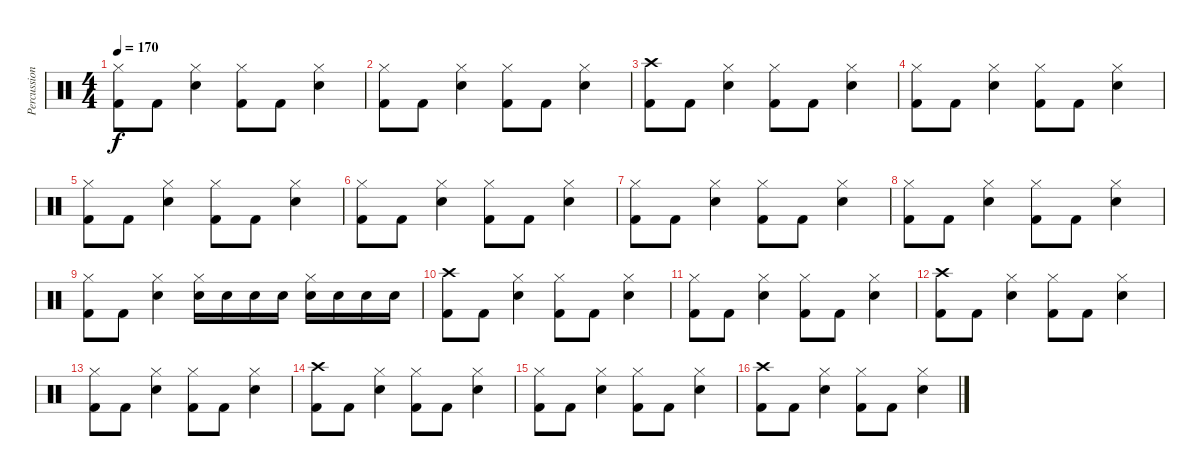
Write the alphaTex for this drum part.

\track ("Percussion" "Percussion") {instrument percussion}
\staff {score}
\articulation defaults
\ts (4 4)
\tempo 170
\clef neutral
\ks c
("Hi-Hat (closed)" "Kick (hit) 2").8{dy f} "Kick (hit) 2".8 ("Hi-Hat (closed)" "Electric Snare (hit)").4 ("Hi-Hat (closed)" "Kick (hit) 2").8 "Kick (hit) 2".8 ("Hi-Hat (closed)" "Electric Snare (hit)").4 |
("Hi-Hat (closed)" "Kick (hit) 2").8 "Kick (hit) 2".8 ("Hi-Hat (closed)" "Electric Snare (hit)").4 ("Hi-Hat (closed)" "Kick (hit) 2").8 "Kick (hit) 2".8 ("Hi-Hat (closed)" "Electric Snare (hit)").4 |
("Crash high (hit)" "Kick (hit) 2").8 "Kick (hit) 2".8 ("Hi-Hat (closed)" "Electric Snare (hit)").4 ("Hi-Hat (closed)" "Kick (hit) 2").8 "Kick (hit) 2".8 ("Hi-Hat (closed)" "Electric Snare (hit)").4 |
("Hi-Hat (closed)" "Kick (hit) 2").8 "Kick (hit) 2".8 ("Hi-Hat (closed)" "Electric Snare (hit)").4 ("Hi-Hat (closed)" "Kick (hit) 2").8 "Kick (hit) 2".8 ("Hi-Hat (closed)" "Electric Snare (hit)").4 |
("Hi-Hat (closed)" "Kick (hit) 2").8 "Kick (hit) 2".8 ("Hi-Hat (closed)" "Electric Snare (hit)").4 ("Hi-Hat (closed)" "Kick (hit) 2").8 "Kick (hit) 2".8 ("Hi-Hat (closed)" "Electric Snare (hit)").4 |
("Hi-Hat (closed)" "Kick (hit) 2").8 "Kick (hit) 2".8 ("Hi-Hat (closed)" "Electric Snare (hit)").4 ("Hi-Hat (closed)" "Kick (hit) 2").8 "Kick (hit) 2".8 ("Hi-Hat (closed)" "Electric Snare (hit)").4 |
("Hi-Hat (closed)" "Kick (hit) 2").8 "Kick (hit) 2".8 ("Hi-Hat (closed)" "Electric Snare (hit)").4 ("Hi-Hat (closed)" "Kick (hit) 2").8 "Kick (hit) 2".8 ("Hi-Hat (closed)" "Electric Snare (hit)").4 |
("Hi-Hat (closed)" "Kick (hit) 2").8 "Kick (hit) 2".8 ("Hi-Hat (closed)" "Electric Snare (hit)").4 ("Hi-Hat (closed)" "Kick (hit) 2").8 "Kick (hit) 2".8 ("Hi-Hat (closed)" "Electric Snare (hit)").4 |
("Hi-Hat (closed)" "Kick (hit) 2").8 "Kick (hit) 2".8 ("Hi-Hat (closed)" "Electric Snare (hit)").4 ("Hi-Hat (closed)" "Electric Snare (hit)").16 "Electric Snare (hit)".16 "Electric Snare (hit)".16 "Electric Snare (hit)".16 ("Hi-Hat (closed)" "Electric Snare (hit)").16 "Electric Snare (hit)".16 "Electric Snare (hit)".16 "Electric Snare (hit)".16 |
("Crash high (hit)" "Kick (hit) 2").8 "Kick (hit) 2".8 ("Hi-Hat (closed)" "Electric Snare (hit)").4 ("Hi-Hat (closed)" "Kick (hit) 2").8 "Kick (hit) 2".8 ("Hi-Hat (closed)" "Electric Snare (hit)").4 |
("Hi-Hat (closed)" "Kick (hit) 2").8 "Kick (hit) 2".8 ("Hi-Hat (closed)" "Electric Snare (hit)").4 ("Hi-Hat (closed)" "Kick (hit) 2").8 "Kick (hit) 2".8 ("Hi-Hat (closed)" "Electric Snare (hit)").4 |
("Crash high (hit)" "Kick (hit) 2").8 "Kick (hit) 2".8 ("Hi-Hat (closed)" "Electric Snare (hit)").4 ("Hi-Hat (closed)" "Kick (hit) 2").8 "Kick (hit) 2".8 ("Hi-Hat (closed)" "Electric Snare (hit)").4 |
("Hi-Hat (closed)" "Kick (hit) 2").8 "Kick (hit) 2".8 ("Hi-Hat (closed)" "Electric Snare (hit)").4 ("Hi-Hat (closed)" "Kick (hit) 2").8 "Kick (hit) 2".8 ("Hi-Hat (closed)" "Electric Snare (hit)").4 |
("Crash high (hit)" "Kick (hit) 2").8 "Kick (hit) 2".8 ("Hi-Hat (closed)" "Electric Snare (hit)").4 ("Hi-Hat (closed)" "Kick (hit) 2").8 "Kick (hit) 2".8 ("Hi-Hat (closed)" "Electric Snare (hit)").4 |
("Hi-Hat (closed)" "Kick (hit) 2").8 "Kick (hit) 2".8 ("Hi-Hat (closed)" "Electric Snare (hit)").4 ("Hi-Hat (closed)" "Kick (hit) 2").8 "Kick (hit) 2".8 ("Hi-Hat (closed)" "Electric Snare (hit)").4 |
("Crash high (hit)" "Kick (hit) 2").8 "Kick (hit) 2".8 ("Hi-Hat (closed)" "Electric Snare (hit)").4 ("Hi-Hat (closed)" "Kick (hit) 2").8 "Kick (hit) 2".8 ("Hi-Hat (closed)" "Electric Snare (hit)").4
